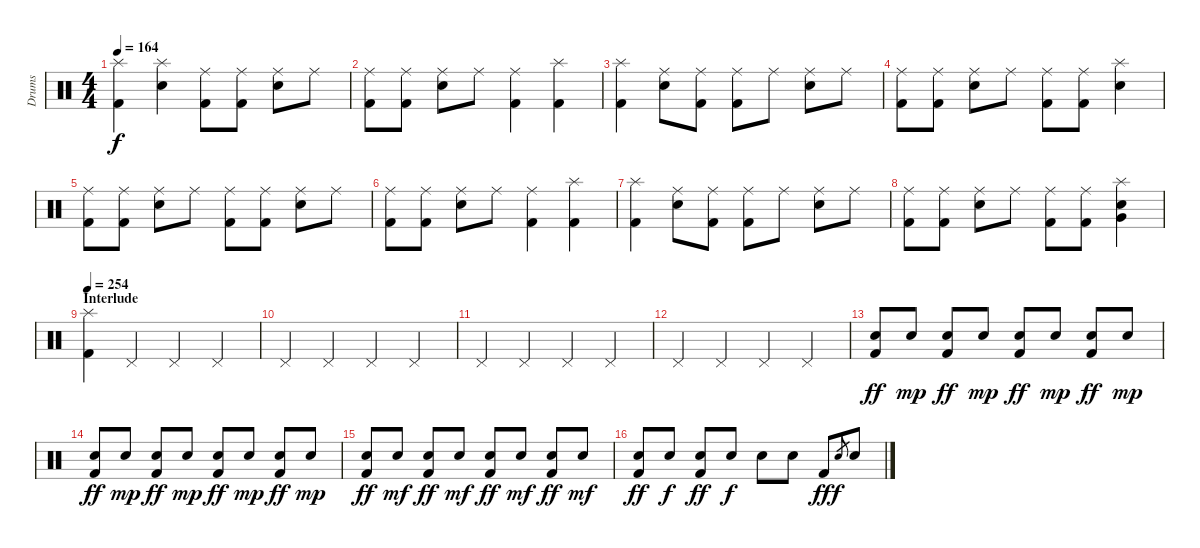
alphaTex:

\track ("Drums" "Drums") {instrument percussion}
\staff {score}
\articulation defaults
\ts (4 4)
\tempo 164
\clef neutral
\ks c
("Splash (hit)" "Kick (hit) 2").4{dy f} ("Splash (hit)" "Electric Snare (hit)").4 ("Ride (middle)" "Kick (hit) 2").8 ("Ride (middle)" "Kick (hit) 2").8 ("Ride (middle)" "Electric Snare (hit)").8 "Ride (middle)".8 |
("Ride (middle)" "Kick (hit) 2").8 ("Ride (middle)" "Kick (hit) 2").8 ("Ride (middle)" "Electric Snare (hit)").8 "Ride (middle)".8 ("Ride (middle)" "Kick (hit) 2").4 ("Splash (hit)" "Kick (hit) 2").4 |
("Splash (hit)" "Kick (hit) 2").4 ("Ride (middle)" "Electric Snare (hit)").8 ("Ride (middle)" "Kick (hit) 2").8 ("Ride (middle)" "Kick (hit) 2").8 "Ride (middle)".8 ("Ride (middle)" "Electric Snare (hit)").8 "Ride (middle)".8 |
("Ride (middle)" "Kick (hit) 2").8 ("Ride (middle)" "Kick (hit) 2").8 ("Ride (middle)" "Electric Snare (hit)").8 "Ride (middle)".8 ("Ride (middle)" "Kick (hit) 2").8 ("Ride (middle)" "Kick (hit) 2").8 ("Splash (hit)" "Electric Snare (hit)").4 |
("Ride (middle)" "Kick (hit) 2").8 ("Ride (middle)" "Kick (hit) 2").8 ("Ride (middle)" "Electric Snare (hit)").8 "Ride (middle)".8 ("Ride (middle)" "Kick (hit) 2").8 ("Ride (middle)" "Kick (hit) 2").8 ("Ride (middle)" "Electric Snare (hit)").8 "Ride (middle)".8 |
("Ride (middle)" "Kick (hit) 2").8 ("Ride (middle)" "Kick (hit) 2").8 ("Ride (middle)" "Electric Snare (hit)").8 "Ride (middle)".8 ("Ride (middle)" "Kick (hit) 2").4 ("Splash (hit)" "Kick (hit) 2").4 |
("Splash (hit)" "Kick (hit) 2").4 ("Ride (middle)" "Electric Snare (hit)").8 ("Ride (middle)" "Kick (hit) 2").8 ("Ride (middle)" "Kick (hit) 2").8 "Ride (middle)".8 ("Ride (middle)" "Electric Snare (hit)").8 "Ride (middle)".8 |
("Ride (middle)" "Kick (hit) 2").8 ("Ride (middle)" "Kick (hit) 2").8 ("Ride (middle)" "Electric Snare (hit)").8 "Ride (middle)".8 ("Ride (middle)" "Kick (hit) 2").8 ("Ride (middle)" "Kick (hit) 2").8 ("Splash (hit)" "Very Low Tom (hit)" "Electric Snare (hit)").4 |
\section ("" "Interlude")
\tempo 254
("Splash (hit)" "Kick (hit) 2").4 "Pedal Hi-Hat (hit)".4 "Pedal Hi-Hat (hit)".4 "Pedal Hi-Hat (hit)".4 |
"Pedal Hi-Hat (hit)".4 "Pedal Hi-Hat (hit)".4 "Pedal Hi-Hat (hit)".4 "Pedal Hi-Hat (hit)".4 |
"Pedal Hi-Hat (hit)".4 "Pedal Hi-Hat (hit)".4 "Pedal Hi-Hat (hit)".4 "Pedal Hi-Hat (hit)".4 |
"Pedal Hi-Hat (hit)".4 "Pedal Hi-Hat (hit)".4 "Pedal Hi-Hat (hit)".4 "Pedal Hi-Hat (hit)".4 |
("Electric Snare (hit)" "Kick (hit) 2").8{dy ff} "Electric Snare (hit)".8{dy mp} ("Electric Snare (hit)" "Kick (hit) 2").8{dy ff} "Electric Snare (hit)".8{dy mp} ("Electric Snare (hit)" "Kick (hit) 2").8{dy ff} "Electric Snare (hit)".8{dy mp} ("Electric Snare (hit)" "Kick (hit) 2").8{dy ff} "Electric Snare (hit)".8{dy mp} |
("Electric Snare (hit)" "Kick (hit) 2").8{dy ff} "Electric Snare (hit)".8{dy mp} ("Electric Snare (hit)" "Kick (hit) 2").8{dy ff} "Electric Snare (hit)".8{dy mp} ("Electric Snare (hit)" "Kick (hit) 2").8{dy ff} "Electric Snare (hit)".8{dy mp} ("Electric Snare (hit)" "Kick (hit) 2").8{dy ff} "Electric Snare (hit)".8{dy mp} |
("Electric Snare (hit)" "Kick (hit) 2").8{dy ff} "Electric Snare (hit)".8{dy mf} ("Electric Snare (hit)" "Kick (hit) 2").8{dy ff} "Electric Snare (hit)".8{dy mf} ("Electric Snare (hit)" "Kick (hit) 2").8{dy ff} "Electric Snare (hit)".8{dy mf} ("Electric Snare (hit)" "Kick (hit) 2").8{dy ff} "Electric Snare (hit)".8{dy mf} |
("Electric Snare (hit)" "Kick (hit) 2").8{dy ff} "Electric Snare (hit)".8{dy f} ("Electric Snare (hit)" "Kick (hit) 2").8{dy ff} "Electric Snare (hit)".8{dy f} "Electric Snare (hit)".8 "Electric Snare (hit)".8 "Kick (hit) 2".8{dy ff} "Electric Snare (hit)".8{gr dy f} "Electric Snare (hit)".8
